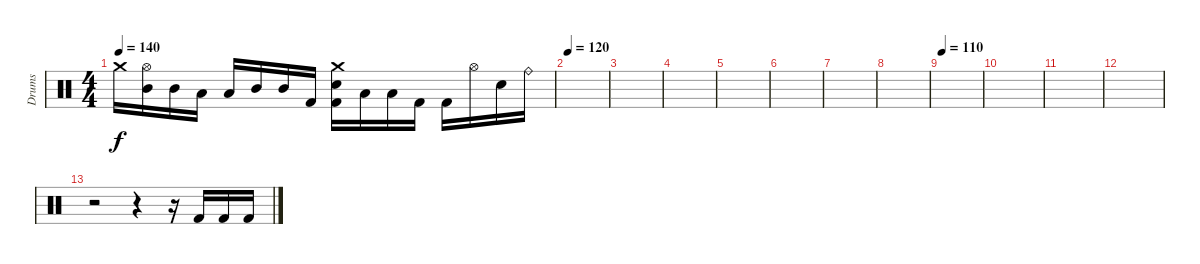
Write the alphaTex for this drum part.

\track ("Drums" "Drums") {instrument percussion}
\staff {score}
\articulation defaults
\ts (4 4)
\tempo 140
\clef neutral
\ks c "Crash medium (hit)".16{dy f}
("Hi-Hat (open)" "Mid Tom (hit)").16 "Mid Tom (hit)".16 "Low Tom (hit)".16 "Low Tom (hit)".16 "Mid Tom (hit)".16 "Mid Tom (hit)".16 "Kick (hit) 2".16 ("Crash medium (hit)" "Electric Snare (hit)" "Kick (hit) 2").16 "Low Tom (hit)".16 "Low Tom (hit)".16 "Kick (hit) 2".16 "Kick (hit) 2".16 "Hi-Hat (open)".16 "Electric Snare (hit)".16 "Ride (bell)".16 |
\tempo 120
|
|
|
|
|
|
|
\tempo 110
|
|
|
|
r.2 r.4 r.16 "Kick (hit) 2".16 "Kick (hit) 2".16 "Kick (hit) 2".16
